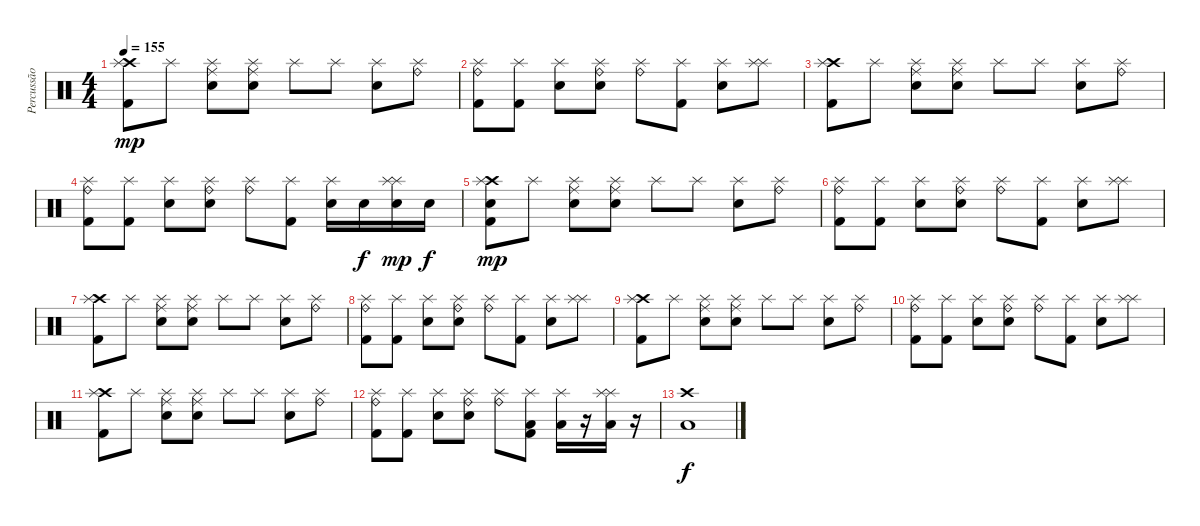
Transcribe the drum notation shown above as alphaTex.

\track ("Percussão" "Percussão") {instrument percussion}
\staff {score}
\articulation defaults
\ts (4 4)
\tempo 155
\clef neutral
\ks c
("Crash high (hit)" "Kick (hit) 2" "Splash (hit)").8{dy mp} "Splash (hit)".8 ("Ride (middle)" "Electric Snare (hit)" "Splash (hit)").8 ("Ride (middle)" "Electric Snare (hit)" "Splash (hit)").8 "Splash (hit)".8 "Splash (hit)".8 ("Electric Snare (hit)" "Splash (hit)").8 ("Ride (bell)" "Splash (hit)").8 |
("Ride (bell)" "Kick (hit) 2" "Splash (hit)").8 ("Kick (hit) 2" "Splash (hit)").8 ("Electric Snare (hit)" "Splash (hit)").8 ("Ride (bell)" "Electric Snare (hit)" "Splash (hit)").8 ("Ride (bell)" "Splash (hit)").8 ("Kick (hit) 2" "Splash (hit)").8 ("Electric Snare (hit)" "Splash (hit)").8 ("Splash (hit)" "Splash (hit)").8 |
("Crash high (hit)" "Kick (hit) 2" "Splash (hit)").8 "Splash (hit)".8 ("Ride (middle)" "Electric Snare (hit)" "Splash (hit)").8 ("Ride (middle)" "Electric Snare (hit)" "Splash (hit)").8 "Splash (hit)".8 "Splash (hit)".8 ("Electric Snare (hit)" "Splash (hit)").8 ("Ride (bell)" "Splash (hit)").8 |
("Ride (bell)" "Kick (hit) 2" "Splash (hit)").8 ("Kick (hit) 2" "Splash (hit)").8 ("Electric Snare (hit)" "Splash (hit)").8 ("Ride (bell)" "Electric Snare (hit)" "Splash (hit)").8 ("Ride (bell)" "Splash (hit)").8 ("Kick (hit) 2" "Splash (hit)").8 ("Electric Snare (hit)" "Splash (hit)").16 "Electric Snare (hit)".16{dy f} ("Splash (hit)" "Electric Snare (hit)" "Splash (hit)").16{dy mp} "Electric Snare (hit)".16{dy f} |
("Crash high (hit)" "Electric Snare (hit)" "Kick (hit) 2" "Splash (hit)").8{dy mp} "Splash (hit)".8 ("Ride (middle)" "Electric Snare (hit)" "Splash (hit)").8 ("Ride (middle)" "Electric Snare (hit)" "Splash (hit)").8 "Splash (hit)".8 "Splash (hit)".8 ("Electric Snare (hit)" "Splash (hit)").8 ("Ride (bell)" "Splash (hit)").8 |
("Ride (bell)" "Kick (hit) 2" "Splash (hit)").8 ("Kick (hit) 2" "Splash (hit)").8 ("Electric Snare (hit)" "Splash (hit)").8 ("Ride (bell)" "Electric Snare (hit)" "Splash (hit)").8 ("Ride (bell)" "Splash (hit)").8 ("Kick (hit) 2" "Splash (hit)").8 ("Electric Snare (hit)" "Splash (hit)").8 ("Splash (hit)" "Splash (hit)").8 |
("Crash high (hit)" "Kick (hit) 2" "Splash (hit)").8 "Splash (hit)".8 ("Ride (middle)" "Electric Snare (hit)" "Splash (hit)").8 ("Ride (middle)" "Electric Snare (hit)" "Splash (hit)").8 "Splash (hit)".8 "Splash (hit)".8 ("Electric Snare (hit)" "Splash (hit)").8 ("Ride (bell)" "Splash (hit)").8 |
("Ride (bell)" "Kick (hit) 2" "Splash (hit)").8 ("Kick (hit) 2" "Splash (hit)").8 ("Electric Snare (hit)" "Splash (hit)").8 ("Ride (bell)" "Electric Snare (hit)" "Splash (hit)").8 ("Ride (bell)" "Splash (hit)").8 ("Kick (hit) 2" "Splash (hit)").8 ("Electric Snare (hit)" "Splash (hit)").8 ("Splash (hit)" "Splash (hit)").8 |
("Crash high (hit)" "Kick (hit) 2" "Splash (hit)").8 "Splash (hit)".8 ("Ride (middle)" "Electric Snare (hit)" "Splash (hit)").8 ("Ride (middle)" "Electric Snare (hit)" "Splash (hit)").8 "Splash (hit)".8 "Splash (hit)".8 ("Electric Snare (hit)" "Splash (hit)").8 ("Ride (bell)" "Splash (hit)").8 |
("Ride (bell)" "Kick (hit) 2" "Splash (hit)").8 ("Kick (hit) 2" "Splash (hit)").8 ("Electric Snare (hit)" "Splash (hit)").8 ("Ride (bell)" "Electric Snare (hit)" "Splash (hit)").8 ("Ride (bell)" "Splash (hit)").8 ("Kick (hit) 2" "Splash (hit)").8 ("Electric Snare (hit)" "Splash (hit)").8 ("Splash (hit)" "Splash (hit)").8 |
("Crash high (hit)" "Kick (hit) 2" "Splash (hit)").8 "Splash (hit)".8 ("Ride (middle)" "Electric Snare (hit)" "Splash (hit)").8 ("Ride (middle)" "Electric Snare (hit)" "Splash (hit)").8 "Splash (hit)".8 "Splash (hit)".8 ("Electric Snare (hit)" "Splash (hit)").8 ("Ride (bell)" "Splash (hit)").8 |
("Ride (bell)" "Kick (hit) 2" "Splash (hit)").8 ("Kick (hit) 2" "Splash (hit)").8 ("Electric Snare (hit)" "Splash (hit)").8 ("Ride (bell)" "Electric Snare (hit)" "Splash (hit)").8 ("Ride (bell)" "Splash (hit)").8 ("Low Tom (hit)" "Kick (hit) 2" "Splash (hit)").8 ("Low Tom (hit)" "Splash (hit)").16 r.16 ("Splash (hit)" "Low Tom (hit)" "Splash (hit)").16 r.16 |
("Crash high (hit)" "Low Tom (hit)").1{dy f}
